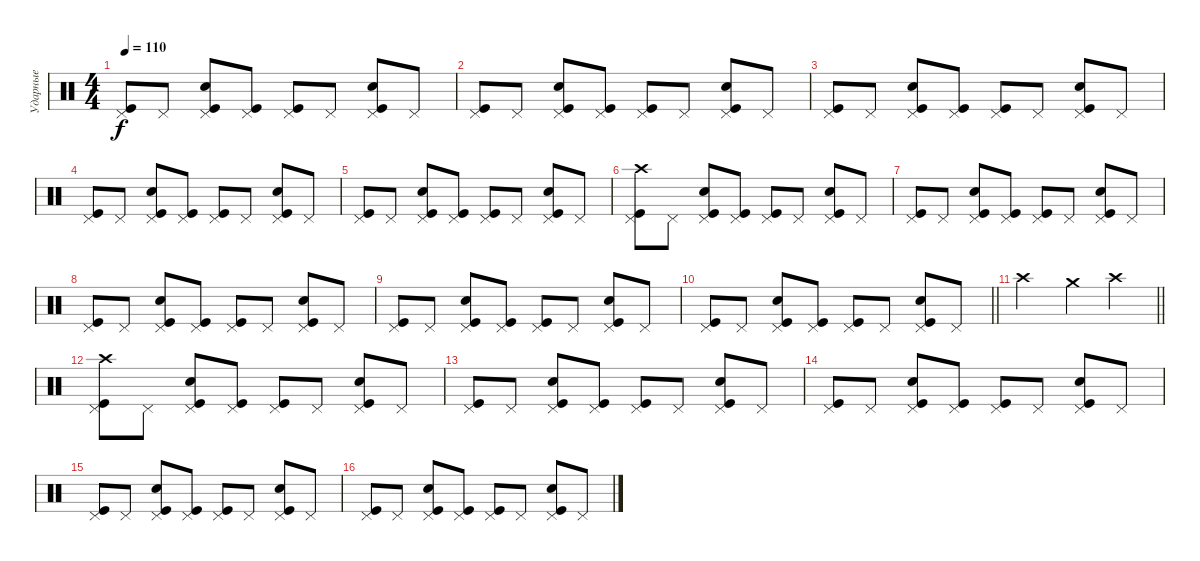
\track ("Ударные" "Ударные") {instrument percussion}
\staff {score}
\articulation defaults
\ts (4 4)
\tempo 110
\clef neutral
\ks c
("Pedal Hi-Hat (hit)" "Kick (hit)").8{dy f} "Pedal Hi-Hat (hit)".8 ("Pedal Hi-Hat (hit)" "Kick (hit)" "Snare (hit) 2").8 ("Pedal Hi-Hat (hit)" "Kick (hit)").8 ("Pedal Hi-Hat (hit)" "Kick (hit)").8 "Pedal Hi-Hat (hit)".8 ("Pedal Hi-Hat (hit)" "Kick (hit)" "Snare (hit) 2").8 "Pedal Hi-Hat (hit)".8 |
("Pedal Hi-Hat (hit)" "Kick (hit)").8 "Pedal Hi-Hat (hit)".8 ("Pedal Hi-Hat (hit)" "Kick (hit)" "Snare (hit) 2").8 ("Pedal Hi-Hat (hit)" "Kick (hit)").8 ("Pedal Hi-Hat (hit)" "Kick (hit)").8 "Pedal Hi-Hat (hit)".8 ("Pedal Hi-Hat (hit)" "Kick (hit)" "Snare (hit) 2").8 "Pedal Hi-Hat (hit)".8 |
("Pedal Hi-Hat (hit)" "Kick (hit)").8 "Pedal Hi-Hat (hit)".8 ("Pedal Hi-Hat (hit)" "Kick (hit)" "Snare (hit) 2").8 ("Pedal Hi-Hat (hit)" "Kick (hit)").8 ("Pedal Hi-Hat (hit)" "Kick (hit)").8 "Pedal Hi-Hat (hit)".8 ("Pedal Hi-Hat (hit)" "Kick (hit)" "Snare (hit) 2").8 "Pedal Hi-Hat (hit)".8 |
("Pedal Hi-Hat (hit)" "Kick (hit)").8 "Pedal Hi-Hat (hit)".8 ("Pedal Hi-Hat (hit)" "Kick (hit)" "Snare (hit) 2").8 ("Pedal Hi-Hat (hit)" "Kick (hit)").8 ("Pedal Hi-Hat (hit)" "Kick (hit)").8 "Pedal Hi-Hat (hit)".8 ("Pedal Hi-Hat (hit)" "Kick (hit)" "Snare (hit) 2").8 "Pedal Hi-Hat (hit)".8 |
("Pedal Hi-Hat (hit)" "Kick (hit)").8 "Pedal Hi-Hat (hit)".8 ("Pedal Hi-Hat (hit)" "Kick (hit)" "Snare (hit) 2").8 ("Pedal Hi-Hat (hit)" "Kick (hit)").8 ("Pedal Hi-Hat (hit)" "Kick (hit)").8 "Pedal Hi-Hat (hit)".8 ("Pedal Hi-Hat (hit)" "Kick (hit)" "Snare (hit) 2").8 "Pedal Hi-Hat (hit)".8 |
("Pedal Hi-Hat (hit)" "Kick (hit)" "Crash high (hit)").8 "Pedal Hi-Hat (hit)".8 ("Pedal Hi-Hat (hit)" "Kick (hit)" "Snare (hit) 2").8 ("Pedal Hi-Hat (hit)" "Kick (hit)").8 ("Pedal Hi-Hat (hit)" "Kick (hit)").8 "Pedal Hi-Hat (hit)".8 ("Pedal Hi-Hat (hit)" "Kick (hit)" "Snare (hit) 2").8 "Pedal Hi-Hat (hit)".8 |
("Pedal Hi-Hat (hit)" "Kick (hit)").8 "Pedal Hi-Hat (hit)".8 ("Pedal Hi-Hat (hit)" "Kick (hit)" "Snare (hit) 2").8 ("Pedal Hi-Hat (hit)" "Kick (hit)").8 ("Pedal Hi-Hat (hit)" "Kick (hit)").8 "Pedal Hi-Hat (hit)".8 ("Pedal Hi-Hat (hit)" "Kick (hit)" "Snare (hit) 2").8 "Pedal Hi-Hat (hit)".8 |
("Pedal Hi-Hat (hit)" "Kick (hit)").8 "Pedal Hi-Hat (hit)".8 ("Pedal Hi-Hat (hit)" "Kick (hit)" "Snare (hit) 2").8 ("Pedal Hi-Hat (hit)" "Kick (hit)").8 ("Pedal Hi-Hat (hit)" "Kick (hit)").8 "Pedal Hi-Hat (hit)".8 ("Pedal Hi-Hat (hit)" "Kick (hit)" "Snare (hit) 2").8 "Pedal Hi-Hat (hit)".8 |
("Pedal Hi-Hat (hit)" "Kick (hit)").8 "Pedal Hi-Hat (hit)".8 ("Pedal Hi-Hat (hit)" "Kick (hit)" "Snare (hit) 2").8 ("Pedal Hi-Hat (hit)" "Kick (hit)").8 ("Pedal Hi-Hat (hit)" "Kick (hit)").8 "Pedal Hi-Hat (hit)".8 ("Pedal Hi-Hat (hit)" "Kick (hit)" "Snare (hit) 2").8 "Pedal Hi-Hat (hit)".8 |
\barLineRight lightlight
("Pedal Hi-Hat (hit)" "Kick (hit)").8 "Pedal Hi-Hat (hit)".8 ("Pedal Hi-Hat (hit)" "Kick (hit)" "Snare (hit) 2").8 ("Pedal Hi-Hat (hit)" "Kick (hit)").8 ("Pedal Hi-Hat (hit)" "Kick (hit)").8 "Pedal Hi-Hat (hit)".8 ("Pedal Hi-Hat (hit)" "Kick (hit)" "Snare (hit) 2").8 "Pedal Hi-Hat (hit)".8 |
\section ("" "")
\barLineRight lightlight "Crash high (hit)".2 "Crash medium (hit)".4 "Crash high (hit)".4
|
("Pedal Hi-Hat (hit)" "Kick (hit)" "Crash high (hit)").8 "Pedal Hi-Hat (hit)".8 ("Pedal Hi-Hat (hit)" "Kick (hit)" "Snare (hit) 2").8 ("Pedal Hi-Hat (hit)" "Kick (hit)").8 ("Pedal Hi-Hat (hit)" "Kick (hit)").8 "Pedal Hi-Hat (hit)".8 ("Pedal Hi-Hat (hit)" "Kick (hit)" "Snare (hit) 2").8 "Pedal Hi-Hat (hit)".8 |
("Pedal Hi-Hat (hit)" "Kick (hit)").8 "Pedal Hi-Hat (hit)".8 ("Pedal Hi-Hat (hit)" "Kick (hit)" "Snare (hit) 2").8 ("Pedal Hi-Hat (hit)" "Kick (hit)").8 ("Pedal Hi-Hat (hit)" "Kick (hit)").8 "Pedal Hi-Hat (hit)".8 ("Pedal Hi-Hat (hit)" "Kick (hit)" "Snare (hit) 2").8 "Pedal Hi-Hat (hit)".8 |
("Pedal Hi-Hat (hit)" "Kick (hit)").8 "Pedal Hi-Hat (hit)".8 ("Pedal Hi-Hat (hit)" "Kick (hit)" "Snare (hit) 2").8 ("Pedal Hi-Hat (hit)" "Kick (hit)").8 ("Pedal Hi-Hat (hit)" "Kick (hit)").8 "Pedal Hi-Hat (hit)".8 ("Pedal Hi-Hat (hit)" "Kick (hit)" "Snare (hit) 2").8 "Pedal Hi-Hat (hit)".8 |
("Pedal Hi-Hat (hit)" "Kick (hit)").8 "Pedal Hi-Hat (hit)".8 ("Pedal Hi-Hat (hit)" "Kick (hit)" "Snare (hit) 2").8 ("Pedal Hi-Hat (hit)" "Kick (hit)").8 ("Pedal Hi-Hat (hit)" "Kick (hit)").8 "Pedal Hi-Hat (hit)".8 ("Pedal Hi-Hat (hit)" "Kick (hit)" "Snare (hit) 2").8 "Pedal Hi-Hat (hit)".8 |
("Pedal Hi-Hat (hit)" "Kick (hit)").8 "Pedal Hi-Hat (hit)".8 ("Pedal Hi-Hat (hit)" "Kick (hit)" "Snare (hit) 2").8 ("Pedal Hi-Hat (hit)" "Kick (hit)").8 ("Pedal Hi-Hat (hit)" "Kick (hit)").8 "Pedal Hi-Hat (hit)".8 ("Pedal Hi-Hat (hit)" "Kick (hit)" "Snare (hit) 2").8 "Pedal Hi-Hat (hit)".8
